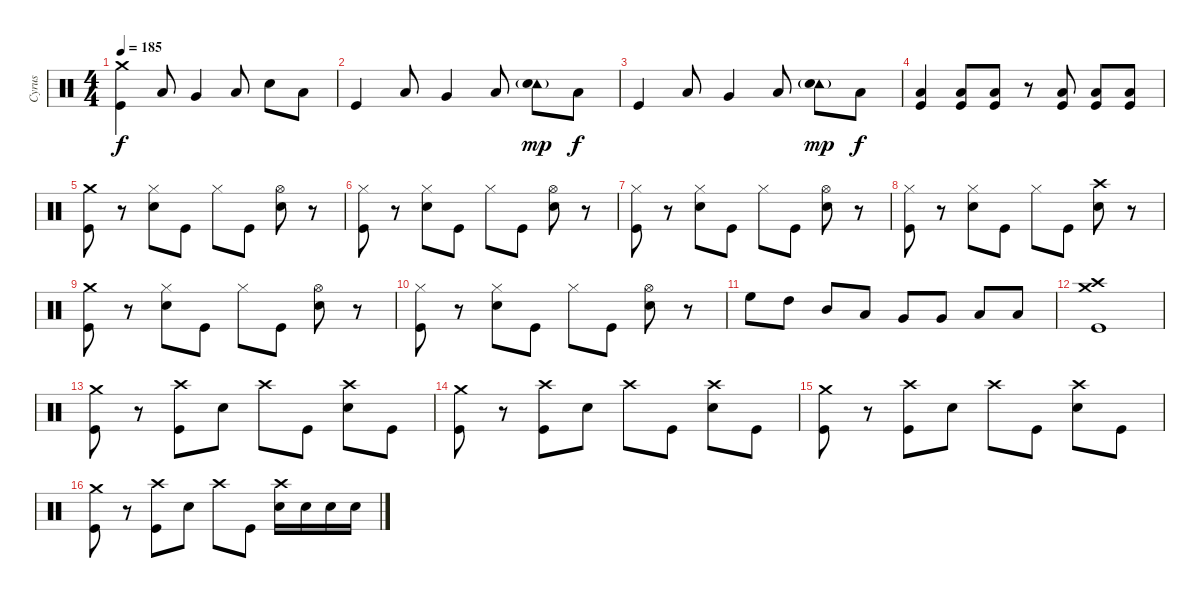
\track ("Cyrus" "Cyrus") {instrument percussion}
\staff {score}
\articulation defaults
\ts (4 4)
\tempo 185
\clef neutral
\ks c
("Crash medium (hit)" "Kick (hit)").4{dy f} "Low Tom (hit)".8 "Very Low Tom (hit)".4 "Low Tom (hit)".8 "Electric Snare (hit)".8 "Low Floor Tom (hit)".8 |
"Kick (hit)".4 "Low Tom (hit)".8 "Very Low Tom (hit)".4 "Low Tom (hit)".8 ("Tambourine (hit)"{g} "Electric Snare (hit)").8{dy mp} "Low Floor Tom (hit)".8{dy f} |
"Kick (hit)".4 "Low Tom (hit)".8 "Very Low Tom (hit)".4 "Low Tom (hit)".8 ("Tambourine (hit)"{g} "Electric Snare (hit)").8{dy mp} "Low Floor Tom (hit)".8{dy f} |
("Low Tom (hit)" "Kick (hit)").4 ("Low Tom (hit)" "Kick (hit)").8 ("Low Tom (hit)" "Kick (hit)").8 r.8 ("Low Tom (hit)" "Kick (hit)").8 ("Low Tom (hit)" "Kick (hit)").8 ("Low Tom (hit)" "Kick (hit)").8 |
("Crash medium (hit)" "Kick (hit)").8 r.8 ("Hi-Hat (closed)" "Electric Snare (hit)").8 "Kick (hit)".8 "Hi-Hat (closed)".8 "Kick (hit)".8 ("Hi-Hat (open)" "Electric Snare (hit)").8 r.8 |
("Hi-Hat (closed)" "Kick (hit)").8 r.8 ("Hi-Hat (closed)" "Electric Snare (hit)").8 "Kick (hit)".8 "Hi-Hat (closed)".8 "Kick (hit)".8 ("Hi-Hat (open)" "Electric Snare (hit)").8 r.8 |
("Hi-Hat (closed)" "Kick (hit)").8 r.8 ("Hi-Hat (closed)" "Electric Snare (hit)").8 "Kick (hit)".8 "Hi-Hat (closed)".8 "Kick (hit)".8 ("Hi-Hat (open)" "Electric Snare (hit)").8 r.8 |
("Hi-Hat (closed)" "Kick (hit)").8 r.8 ("Hi-Hat (closed)" "Electric Snare (hit)").8 "Kick (hit)".8 "Hi-Hat (closed)".8 "Kick (hit)".8 ("Crash high (hit)" "Electric Snare (hit)").8 r.8 |
("Crash medium (hit)" "Kick (hit)").8 r.8 ("Hi-Hat (closed)" "Electric Snare (hit)").8 "Kick (hit)".8 "Hi-Hat (closed)".8 "Kick (hit)".8 ("Hi-Hat (open)" "Electric Snare (hit)").8 r.8 |
("Hi-Hat (closed)" "Kick (hit)").8 r.8 ("Hi-Hat (closed)" "Electric Snare (hit)").8 "Kick (hit)".8 "Hi-Hat (closed)".8 "Kick (hit)".8 ("Hi-Hat (open)" "Electric Snare (hit)").8 r.8 |
"High Floor Tom (hit)".8 "High Tom (hit)".8 "Mid Tom (hit)".8 "Low Tom (hit)".8 "Very Low Tom (hit)".8 "Very Low Tom (hit)".8 "Low Floor Tom (hit)".8 "Low Floor Tom (hit)".8 |
("Crash medium (hit)" "Crash high (hit)" "Kick (hit)").1 |
("Crash medium (hit)" "Kick (hit)").8 r.8 ("Crash high (hit)" "Kick (hit)").8 "Electric Snare (hit)".8 "Crash high (hit)".8 "Kick (hit)".8 ("Crash high (hit)" "Electric Snare (hit)").8 "Kick (hit)".8 |
("Crash medium (hit)" "Kick (hit)").8 r.8 ("Crash high (hit)" "Kick (hit)").8 "Electric Snare (hit)".8 "Crash high (hit)".8 "Kick (hit)".8 ("Crash high (hit)" "Electric Snare (hit)").8 "Kick (hit)".8 |
("Crash medium (hit)" "Kick (hit)").8 r.8 ("Crash high (hit)" "Kick (hit)").8 "Electric Snare (hit)".8 "Crash high (hit)".8 "Kick (hit)".8 ("Crash high (hit)" "Electric Snare (hit)").8 "Kick (hit)".8 |
("Crash medium (hit)" "Kick (hit)").8 r.8 ("Crash high (hit)" "Kick (hit)").8 "Electric Snare (hit)".8 "Crash high (hit)".8 "Kick (hit)".8 ("Crash high (hit)" "Electric Snare (hit)").16 "Electric Snare (hit)".16 "Electric Snare (hit)".16 "Electric Snare (hit)".16
